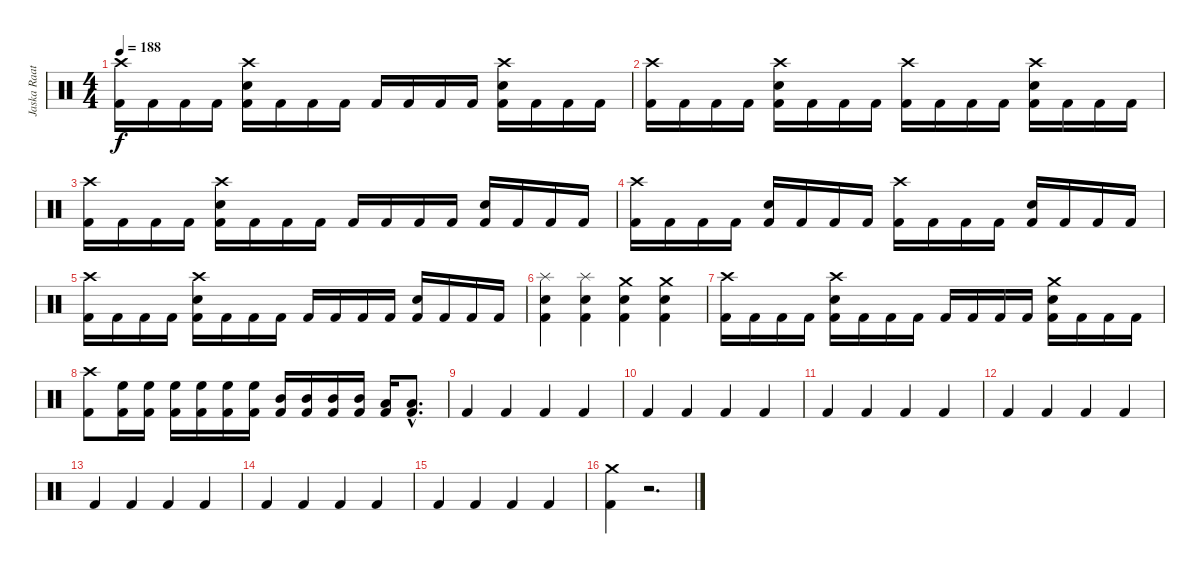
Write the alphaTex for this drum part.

\track ("Jaska Raatikainen" "Jaska Raat") {instrument percussion}
\staff {score}
\articulation defaults
\ts (4 4)
\tempo 188
\clef neutral
\ks c
("Crash high (hit)" "Kick (hit) 2").16{dy f} "Kick (hit) 2".16 "Kick (hit) 2".16 "Kick (hit) 2".16 ("Crash high (hit)" "Electric Snare (hit)" "Kick (hit) 2").16 "Kick (hit) 2".16 "Kick (hit) 2".16 "Kick (hit) 2".16 "Kick (hit) 2".16 "Kick (hit) 2".16 "Kick (hit) 2".16 "Kick (hit) 2".16 ("Crash high (hit)" "Electric Snare (hit)" "Kick (hit) 2").16 "Kick (hit) 2".16 "Kick (hit) 2".16 "Kick (hit) 2".16 |
("Crash high (hit)" "Kick (hit) 2").16 "Kick (hit) 2".16 "Kick (hit) 2".16 "Kick (hit) 2".16 ("Crash high (hit)" "Electric Snare (hit)" "Kick (hit) 2").16 "Kick (hit) 2".16 "Kick (hit) 2".16 "Kick (hit) 2".16 ("Crash high (hit)" "Kick (hit) 2").16 "Kick (hit) 2".16 "Kick (hit) 2".16 "Kick (hit) 2".16 ("Crash high (hit)" "Electric Snare (hit)" "Kick (hit) 2").16 "Kick (hit) 2".16 "Kick (hit) 2".16 "Kick (hit) 2".16 |
("Crash high (hit)" "Kick (hit) 2").16 "Kick (hit) 2".16 "Kick (hit) 2".16 "Kick (hit) 2".16 ("Crash high (hit)" "Electric Snare (hit)" "Kick (hit) 2").16 "Kick (hit) 2".16 "Kick (hit) 2".16 "Kick (hit) 2".16 "Kick (hit) 2".16 "Kick (hit) 2".16 "Kick (hit) 2".16 "Kick (hit) 2".16 ("Electric Snare (hit)" "Kick (hit) 2").16 "Kick (hit) 2".16 "Kick (hit) 2".16 "Kick (hit) 2".16 |
("Crash high (hit)" "Kick (hit) 2").16 "Kick (hit) 2".16 "Kick (hit) 2".16 "Kick (hit) 2".16 ("Electric Snare (hit)" "Kick (hit) 2").16 "Kick (hit) 2".16 "Kick (hit) 2".16 "Kick (hit) 2".16 ("Crash high (hit)" "Kick (hit) 2").16 "Kick (hit) 2".16 "Kick (hit) 2".16 "Kick (hit) 2".16 ("Electric Snare (hit)" "Kick (hit) 2").16 "Kick (hit) 2".16 "Kick (hit) 2".16 "Kick (hit) 2".16 |
("Crash high (hit)" "Kick (hit) 2").16 "Kick (hit) 2".16 "Kick (hit) 2".16 "Kick (hit) 2".16 ("Crash high (hit)" "Electric Snare (hit)" "Kick (hit) 2").16 "Kick (hit) 2".16 "Kick (hit) 2".16 "Kick (hit) 2".16 "Kick (hit) 2".16 "Kick (hit) 2".16 "Kick (hit) 2".16 "Kick (hit) 2".16 ("Electric Snare (hit)" "Kick (hit) 2").16 "Kick (hit) 2".16 "Kick (hit) 2".16 "Kick (hit) 2".16 |
("Splash (hit)" "Electric Snare (hit)" "Kick (hit) 2").4 ("Splash (hit)" "Electric Snare (hit)" "Kick (hit) 2").4 ("Crash medium (hit)" "Electric Snare (hit)" "Kick (hit) 2").4 ("Crash medium (hit)" "Electric Snare (hit)" "Kick (hit) 2").4 |
("Crash high (hit)" "Kick (hit) 2").16 "Kick (hit) 2".16 "Kick (hit) 2".16 "Kick (hit) 2".16 ("Crash high (hit)" "Electric Snare (hit)" "Kick (hit) 2").16 "Kick (hit) 2".16 "Kick (hit) 2".16 "Kick (hit) 2".16 "Kick (hit) 2".16 "Kick (hit) 2".16 "Kick (hit) 2".16 "Kick (hit) 2".16 ("Crash medium (hit)" "Electric Snare (hit)" "Kick (hit) 2").16 "Kick (hit) 2".16 "Kick (hit) 2".16 "Kick (hit) 2".16 |
("Crash high (hit)" "Kick (hit) 2").8 ("High Floor Tom (hit)" "Kick (hit) 2").16 ("High Floor Tom (hit)" "Kick (hit) 2").16 ("High Floor Tom (hit)" "Kick (hit) 2").16 ("High Floor Tom (hit)" "Kick (hit) 2").16 ("High Floor Tom (hit)" "Kick (hit) 2").16 ("High Floor Tom (hit)" "Kick (hit) 2").16 ("Mid Tom (hit)" "Kick (hit) 2").16 ("Mid Tom (hit)" "Kick (hit) 2").16 ("Mid Tom (hit)" "Kick (hit) 2").16 ("Mid Tom (hit)" "Kick (hit) 2").16 ("Low Tom (hit)" "Kick (hit) 2").16 ("Low Tom (hit)"{hac} "Kick (hit) 2"{hac}).8{d} |
"Kick (hit) 2".4 "Kick (hit) 2".4 "Kick (hit) 2".4 "Kick (hit) 2".4 |
"Kick (hit) 2".4 "Kick (hit) 2".4 "Kick (hit) 2".4 "Kick (hit) 2".4 |
"Kick (hit) 2".4 "Kick (hit) 2".4 "Kick (hit) 2".4 "Kick (hit) 2".4 |
"Kick (hit) 2".4 "Kick (hit) 2".4 "Kick (hit) 2".4 "Kick (hit) 2".4 |
"Kick (hit) 2".4 "Kick (hit) 2".4 "Kick (hit) 2".4 "Kick (hit) 2".4 |
"Kick (hit) 2".4 "Kick (hit) 2".4 "Kick (hit) 2".4 "Kick (hit) 2".4 |
"Kick (hit) 2".4 "Kick (hit) 2".4 "Kick (hit) 2".4 "Kick (hit) 2".4 |
("Crash medium (hit)" "Kick (hit) 2").4 r.2{d}
